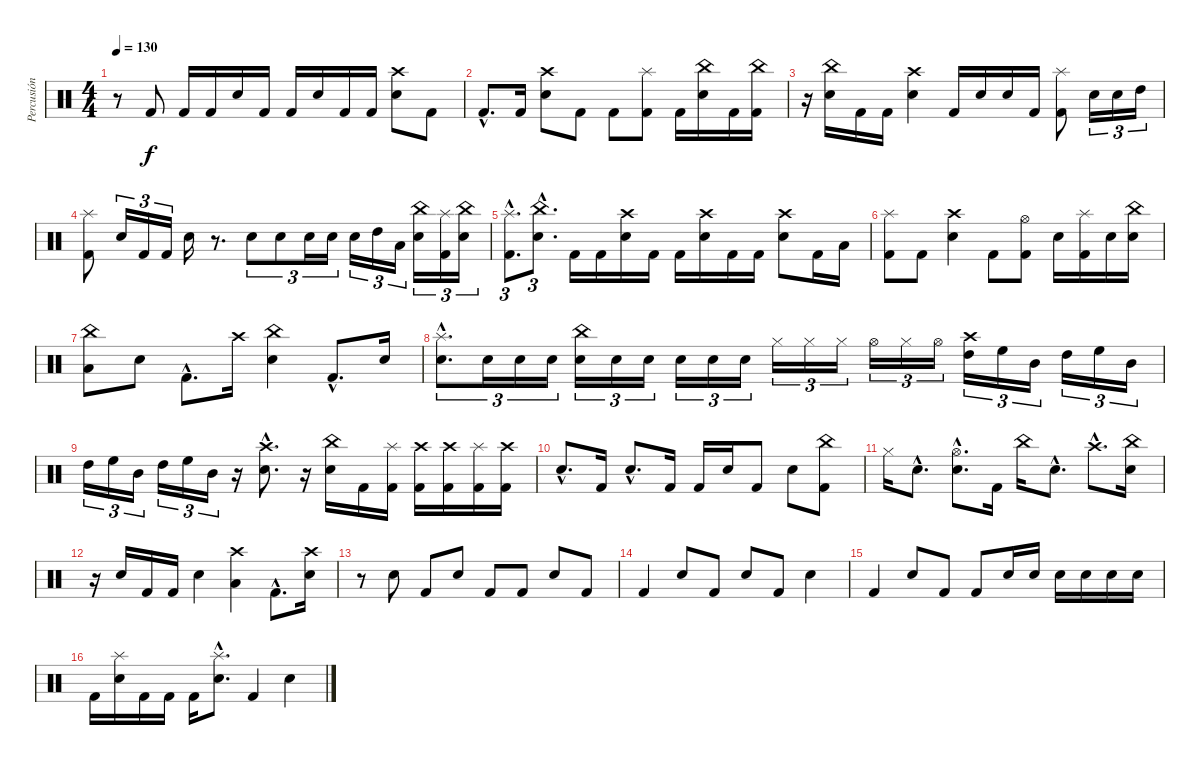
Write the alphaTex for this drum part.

\track ("Percusión" "Percusión") {instrument percussion}
\staff {score}
\articulation defaults
\ts (4 4)
\tempo 130
\clef neutral
\ks c
r.8{dy f} "Kick (hit) 2".8 "Kick (hit) 2".16 "Kick (hit) 2".16 "Electric Snare (hit)".16 "Kick (hit) 2".16 "Kick (hit) 2".16 "Electric Snare (hit)".16 "Kick (hit) 2".16 "Kick (hit) 2".16 ("Crash high (hit)" "Electric Snare (hit)").8 "Kick (hit) 2".8 |
"Kick (hit) 2"{hac}.8{d} "Kick (hit) 2".16 ("Crash high (hit)" "Electric Snare (hit)").8 "Kick (hit) 2".8 "Kick (hit) 2".8 ("Splash (hit)" "Kick (hit) 2").8 "Kick (hit) 2".16 ("China (hit)" "Electric Snare (hit)").16 "Kick (hit) 2".16 ("China (hit)" "Kick (hit) 2").16 |
r.16 ("China (hit)" "Electric Snare (hit)").16 "Kick (hit) 2".16 "Kick (hit) 2".16 ("Crash high (hit)" "Electric Snare (hit)").4 "Kick (hit) 2".16 "Electric Snare (hit)".16 "Electric Snare (hit)".16 "Kick (hit) 2".16 ("Splash (hit)" "Kick (hit) 2").8 "Electric Snare (hit)".16{tu (3 2)} "Electric Snare (hit)".16{tu (3 2)} "High Tom (hit)".16{tu (3 2)} |
("Splash (hit)" "Kick (hit) 2").8 "Electric Snare (hit)".16{tu (3 2)} "Kick (hit) 2".16{tu (3 2)} "Kick (hit) 2".16{tu (3 2)} "Electric Snare (hit)".16 r.8{d} "Electric Snare (hit)".8{tu (3 2)} "Electric Snare (hit)".8{tu (3 2)} "Electric Snare (hit)".16{tu (3 2)} "Electric Snare (hit)".16{tu (3 2)} "Electric Snare (hit)".16{tu (3 2)} "High Tom (hit)".16{tu (3 2)} "Low Tom (hit)".16{tu (3 2)} ("China (hit)" "Electric Snare (hit)").16{tu (3 2)} ("Splash (hit)" "Kick (hit) 2").16{tu (3 2)} ("China (hit)" "Electric Snare (hit)").16{tu (3 2)} |
("Splash (hit)"{hac} "Kick (hit) 2"{hac}).8{d tu (3 2)} ("China (hit)"{hac} "Electric Snare (hit)"{hac}).8{d tu (3 2)} "Kick (hit) 2".16 "Kick (hit) 2".16 ("Crash high (hit)" "Electric Snare (hit)").16 "Kick (hit) 2".16 "Kick (hit) 2".16 ("Crash high (hit)" "Electric Snare (hit)").16 "Kick (hit) 2".16 "Kick (hit) 2".16 ("Crash high (hit)" "Electric Snare (hit)").8 "Kick (hit) 2".16 "Low Tom (hit)".16 |
("Splash (hit)" "Kick (hit) 2").8 "Kick (hit) 2".8 ("Crash high (hit)" "Electric Snare (hit)").4 "Kick (hit) 2".8 ("Hi-Hat (open)" "Kick (hit) 2").8 "Electric Snare (hit)".16 ("Splash (hit)" "Kick (hit) 2").16 "Electric Snare (hit)".16 ("China (hit)" "Electric Snare (hit)").16 |
("China (hit)" "Low Floor Tom (hit)").8 "Electric Snare (hit)".8 "Kick (hit) 2"{hac}.8{d} "Crash high (hit)".16 ("China (hit)" "Electric Snare (hit)").4 "Kick (hit) 2"{hac}.8{d} "Electric Snare (hit)".16 |
("Splash (hit)"{hac} "Electric Snare (hit)"{hac}).8{d tu (3 2)} "Electric Snare (hit)".16{tu (3 2)} "Electric Snare (hit)".16{tu (3 2)} "Electric Snare (hit)".16{tu (3 2)} ("China (hit)" "Electric Snare (hit)").16{tu (3 2)} "Electric Snare (hit)".16{tu (3 2)} "Electric Snare (hit)".16{tu (3 2)} "Electric Snare (hit)".16{tu (3 2)} "Electric Snare (hit)".16{tu (3 2)} "Electric Snare (hit)".16{tu (3 2)} "Hi-Hat (closed)".16{tu (3 2)} "Hi-Hat (closed)".16{tu (3 2)} "Hi-Hat (closed)".16{tu (3 2)} "Hi-Hat (open)".16{tu (3 2)} "Hi-Hat (closed)".16{tu (3 2)} "Hi-Hat (open)".16{tu (3 2)} ("Crash high (hit)" "High Tom (hit)").16{tu (3 2)} "High Floor Tom (hit)".16{tu (3 2)} "Mid Tom (hit)".16{tu (3 2)} "High Tom (hit)".16{tu (3 2)} "High Floor Tom (hit)".16{tu (3 2)} "Mid Tom (hit)".16{tu (3 2)} |
"High Tom (hit)".16{tu (3 2)} "High Floor Tom (hit)".16{tu (3 2)} "Mid Tom (hit)".16{tu (3 2)} "High Tom (hit)".16{tu (3 2)} "High Floor Tom (hit)".16{tu (3 2)} "Mid Tom (hit)".16{tu (3 2)} r.16 ("Crash high (hit)"{hac} "Electric Snare (hit)"{hac}).8{d} r.16 ("China (hit)" "Electric Snare (hit)").16 "Kick (hit) 2".16 ("Splash (hit)" "Kick (hit) 2").16 ("Crash high (hit)" "Kick (hit) 2").16 ("Crash high (hit)" "Kick (hit) 2").16 ("Splash (hit)" "Kick (hit) 2").16 ("Crash high (hit)" "Kick (hit) 2").16 |
"Electric Snare (hit)"{hac}.8{d} "Kick (hit) 2".16 "Electric Snare (hit)"{hac}.8{d} "Kick (hit) 2".16 "Kick (hit) 2".16 "Electric Snare (hit)".16 "Kick (hit) 2".8 "Electric Snare (hit)".8 ("China (hit)" "Kick (hit) 2").8 |
"Hi-Hat (closed)".16 "Electric Snare (hit)"{hac}.8{d} ("Hi-Hat (open)"{hac} "Electric Snare (hit)"{hac}).8{d} "Kick (hit) 2".16 "China (hit)".16 "Electric Snare (hit)"{hac}.8{d} "Crash high (hit)"{hac}.8{d} ("China (hit)" "Electric Snare (hit)").16 |
r.16 "Electric Snare (hit)".16 "Kick (hit) 2".16 "Kick (hit) 2".16 "Electric Snare (hit)".4 ("Crash high (hit)" "Low Floor Tom (hit)").4 "Kick (hit) 2"{hac}.8{d} ("Crash high (hit)" "Electric Snare (hit)").16 |
r.8 "Electric Snare (hit)".8 "Kick (hit) 2".8 "Electric Snare (hit)".8 "Kick (hit) 2".8 "Kick (hit) 2".8 "Electric Snare (hit)".8 "Kick (hit) 2".8 |
"Kick (hit) 2".4 "Electric Snare (hit)".8 "Kick (hit) 2".8 "Electric Snare (hit)".8 "Kick (hit) 2".8 "Electric Snare (hit)".4 |
"Kick (hit) 2".4 "Electric Snare (hit)".8 "Kick (hit) 2".8 "Kick (hit) 2".8 "Electric Snare (hit)".16 "Electric Snare (hit)".16 "Electric Snare (hit)".16 "Electric Snare (hit)".16 "Electric Snare (hit)".16 "Electric Snare (hit)".16 |
"Kick (hit) 2".16 ("Splash (hit)" "Electric Snare (hit)").16 "Kick (hit) 2".16 "Kick (hit) 2".16 "Kick (hit) 2".16 ("Splash (hit)"{hac} "Electric Snare (hit)"{hac}).8{d} "Kick (hit) 2".4 "Electric Snare (hit)".4
